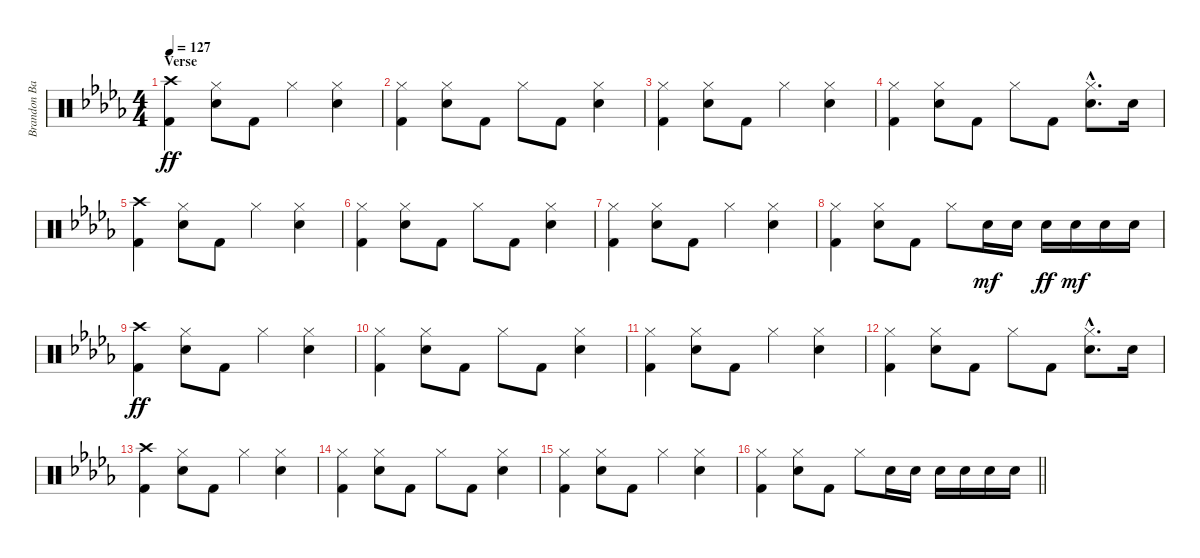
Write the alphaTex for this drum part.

\track ("Brandon Barnes - Drums" "Brandon Ba") {instrument percussion}
\staff {score}
\articulation defaults
\ts (4 4)
\section ("" "Verse")
\tempo 127
\clef neutral
\ks db
("Crash high (hit)" "Kick (hit) 2").4{dy ff} ("Snare (hit) 2" "Hi-Hat (closed)").8 "Kick (hit) 2".8 "Hi-Hat (closed)".4 ("Snare (hit) 2" "Hi-Hat (closed)").4 |
("Hi-Hat (closed)" "Kick (hit) 2").4 ("Snare (hit) 2" "Hi-Hat (closed)").8 "Kick (hit) 2".8 "Hi-Hat (closed)".8 "Kick (hit) 2".8 ("Snare (hit) 2" "Hi-Hat (closed)").4 |
("Hi-Hat (closed)" "Kick (hit) 2").4 ("Snare (hit) 2" "Hi-Hat (closed)").8 "Kick (hit) 2".8 "Hi-Hat (closed)".4 ("Snare (hit) 2" "Hi-Hat (closed)").4 |
("Hi-Hat (closed)" "Kick (hit) 2").4 ("Snare (hit) 2" "Hi-Hat (closed)").8 "Kick (hit) 2".8 "Hi-Hat (closed)".8 "Kick (hit) 2".8 ("Snare (hit) 2"{hac} "Hi-Hat (closed)"{hac}).8{d} "Snare (hit) 2".16 |
("Crash high (hit)" "Kick (hit) 2").4 ("Snare (hit) 2" "Hi-Hat (closed)").8 "Kick (hit) 2".8 "Hi-Hat (closed)".4 ("Snare (hit) 2" "Hi-Hat (closed)").4 |
("Hi-Hat (closed)" "Kick (hit) 2").4 ("Snare (hit) 2" "Hi-Hat (closed)").8 "Kick (hit) 2".8 "Hi-Hat (closed)".8 "Kick (hit) 2".8 ("Snare (hit) 2" "Hi-Hat (closed)").4 |
("Hi-Hat (closed)" "Kick (hit) 2").4 ("Snare (hit) 2" "Hi-Hat (closed)").8 "Kick (hit) 2".8 "Hi-Hat (closed)".4 ("Snare (hit) 2" "Hi-Hat (closed)").4 |
("Hi-Hat (closed)" "Kick (hit) 2").4 ("Snare (hit) 2" "Hi-Hat (closed)").8 "Kick (hit) 2".8 "Hi-Hat (closed)".8 "Snare (hit) 2".16{dy mf} "Snare (hit) 2".16 "Snare (hit) 2".16{dy ff} "Snare (hit) 2".16{dy mf} "Snare (hit) 2".16 "Snare (hit) 2".16 |
("Crash high (hit)" "Kick (hit) 2").4{dy ff volume 13} ("Snare (hit) 2" "Hi-Hat (closed)").8 "Kick (hit) 2".8 "Hi-Hat (closed)".4 ("Snare (hit) 2" "Hi-Hat (closed)").4 |
("Hi-Hat (closed)" "Kick (hit) 2").4 ("Snare (hit) 2" "Hi-Hat (closed)").8 "Kick (hit) 2".8 "Hi-Hat (closed)".8 "Kick (hit) 2".8 ("Snare (hit) 2" "Hi-Hat (closed)").4 |
("Hi-Hat (closed)" "Kick (hit) 2").4 ("Snare (hit) 2" "Hi-Hat (closed)").8 "Kick (hit) 2".8 "Hi-Hat (closed)".4 ("Snare (hit) 2" "Hi-Hat (closed)").4 |
("Hi-Hat (closed)" "Kick (hit) 2").4 ("Snare (hit) 2" "Hi-Hat (closed)").8 "Kick (hit) 2".8 "Hi-Hat (closed)".8 "Kick (hit) 2".8 ("Snare (hit) 2"{hac} "Hi-Hat (closed)"{hac}).8{d} "Snare (hit) 2".16 |
("Crash high (hit)" "Kick (hit) 2").4 ("Snare (hit) 2" "Hi-Hat (closed)").8 "Kick (hit) 2".8 "Hi-Hat (closed)".4 ("Snare (hit) 2" "Hi-Hat (closed)").4 |
("Hi-Hat (closed)" "Kick (hit) 2").4 ("Snare (hit) 2" "Hi-Hat (closed)").8 "Kick (hit) 2".8 "Hi-Hat (closed)".8 "Kick (hit) 2".8 ("Snare (hit) 2" "Hi-Hat (closed)").4 |
("Hi-Hat (closed)" "Kick (hit) 2").4 ("Snare (hit) 2" "Hi-Hat (closed)").8 "Kick (hit) 2".8 "Hi-Hat (closed)".4 ("Snare (hit) 2" "Hi-Hat (closed)").4 |
\barLineRight lightlight
("Hi-Hat (closed)" "Kick (hit) 2").4 ("Snare (hit) 2" "Hi-Hat (closed)").8 "Kick (hit) 2".8 "Hi-Hat (closed)".8 "Snare (hit) 2".16 "Snare (hit) 2".16 "Snare (hit) 2".16 "Snare (hit) 2".16 "Snare (hit) 2".16 "Snare (hit) 2".16
